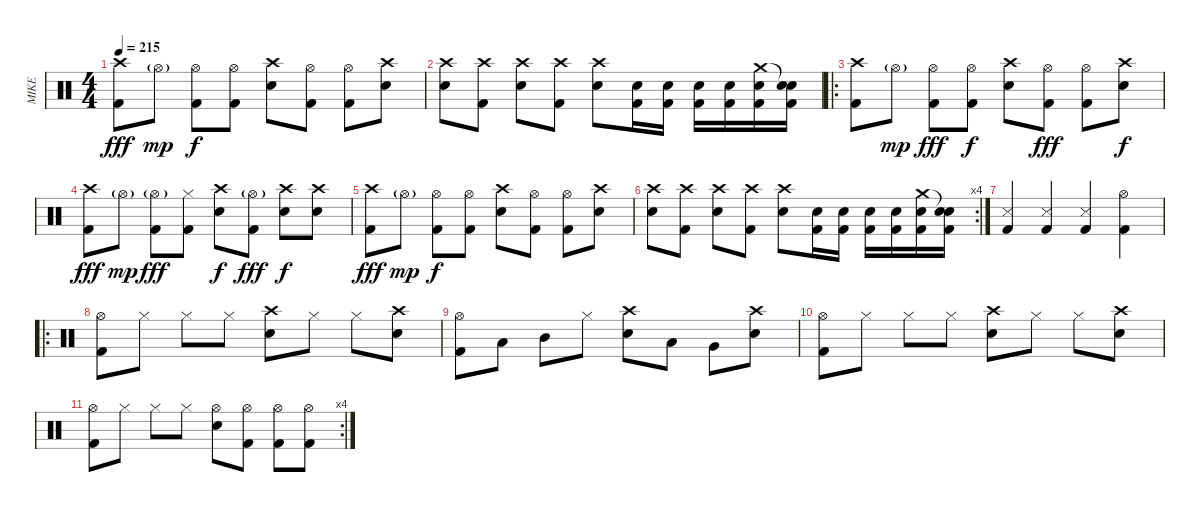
\track ("MIKE" "MIKE") {instrument percussion}
\staff {score}
\articulation defaults
\ts (4 4)
\tempo 215
\clef neutral
\ks c
("Crash high (hit)" "Kick (hit) 2").8{dy fff} "Hi-Hat (open)"{g}.8{dy mp} ("Hi-Hat (open)" "Kick (hit) 2").8{dy f} ("Hi-Hat (open)" "Kick (hit) 2").8 ("Crash high (hit)" "Electric Snare (hit)").8 ("Hi-Hat (open)" "Kick (hit) 2").8 ("Hi-Hat (open)" "Kick (hit) 2").8 ("Crash high (hit)" "Electric Snare (hit)").8 |
("Crash high (hit)" "Electric Snare (hit)").8 ("Crash high (hit)" "Kick (hit) 2").8 ("Crash high (hit)" "Electric Snare (hit)").8 ("Crash high (hit)" "Kick (hit) 2").8 ("Crash high (hit)" "Electric Snare (hit)").8 ("Electric Snare (hit)" "Kick (hit) 2").16 ("Electric Snare (hit)" "Kick (hit) 2").16 ("Electric Snare (hit)" "Kick (hit) 2").16 ("Electric Snare (hit)" "Kick (hit) 2").16 ("Crash medium (hit)" "Electric Snare (hit)" "Kick (hit) 2").16 ("Snare (hit)"{t} "Electric Snare (hit)" "Kick (hit) 2").16 |
\ro
("Crash high (hit)" "Kick (hit) 2").8 "Hi-Hat (open)"{g}.8{dy mp} ("Hi-Hat (open)" "Kick (hit) 2").8{dy fff} ("Hi-Hat (open)" "Kick (hit) 2").8{dy f} ("Crash high (hit)" "Electric Snare (hit)").8 ("Hi-Hat (open)" "Kick (hit) 2").8{dy fff} ("Hi-Hat (open)" "Kick (hit) 2").8 ("Crash high (hit)" "Electric Snare (hit)").8{dy f} |
("Crash high (hit)" "Kick (hit) 2").8{dy fff} "Hi-Hat (open)"{g}.8{dy mp} ("Hi-Hat (open)"{g} "Kick (hit) 2").8{dy fff} ("Hi-Hat (closed)" "Kick (hit) 2").8 ("Crash high (hit)" "Electric Snare (hit)").8{dy f} ("Hi-Hat (open)"{g} "Kick (hit) 2").8{dy fff} ("Crash high (hit)" "Electric Snare (hit)").8{dy f} ("Crash high (hit)" "Electric Snare (hit)").8 |
("Crash high (hit)" "Kick (hit) 2").8{dy fff} "Hi-Hat (open)"{g}.8{dy mp} ("Hi-Hat (open)" "Kick (hit) 2").8{dy f} ("Hi-Hat (open)" "Kick (hit) 2").8 ("Crash high (hit)" "Electric Snare (hit)").8 ("Hi-Hat (open)" "Kick (hit) 2").8 ("Hi-Hat (open)" "Kick (hit) 2").8 ("Crash high (hit)" "Electric Snare (hit)").8 |
\rc 4
("Crash high (hit)" "Electric Snare (hit)").8 ("Crash high (hit)" "Kick (hit) 2").8 ("Crash high (hit)" "Electric Snare (hit)").8 ("Crash high (hit)" "Kick (hit) 2").8 ("Crash high (hit)" "Electric Snare (hit)").8 ("Electric Snare (hit)" "Kick (hit) 2").16 ("Electric Snare (hit)" "Kick (hit) 2").16 ("Electric Snare (hit)" "Kick (hit) 2").16 ("Electric Snare (hit)" "Kick (hit) 2").16 ("Crash medium (hit)" "Electric Snare (hit)" "Kick (hit) 2").16 ("Snare (hit)"{t} "Electric Snare (hit)" "Kick (hit) 2").16 |
("Kick (hit) 2" "Snare (side stick) 3").4 ("Kick (hit) 2" "Snare (side stick) 3").4 ("Kick (hit) 2" "Snare (side stick) 3").4 ("Kick (hit) 2" "Hi-Hat (open)").4 |
\ro
("Hi-Hat (open)" "Kick (hit) 2").8 "Hi-Hat (closed)".8 "Hi-Hat (closed)".8 "Hi-Hat (closed)".8 ("Crash high (hit)" "Electric Snare (hit)").8 "Hi-Hat (closed)".8 "Hi-Hat (closed)".8 ("Crash high (hit)" "Electric Snare (hit)").8 |
("Hi-Hat (open)" "Kick (hit) 2").8 "Low Tom (hit)".8 "Mid Tom (hit)".8 "Hi-Hat (closed)".8 ("Crash high (hit)" "Electric Snare (hit)").8 "Low Tom (hit)".8 "Very Low Tom (hit)".8 ("Crash high (hit)" "Electric Snare (hit)").8 |
("Hi-Hat (open)" "Kick (hit) 2").8 "Hi-Hat (closed)".8 "Hi-Hat (closed)".8 "Hi-Hat (closed)".8 ("Crash high (hit)" "Electric Snare (hit)").8 "Hi-Hat (closed)".8 "Hi-Hat (closed)".8 ("Crash high (hit)" "Electric Snare (hit)").8 |
\rc 4
("Hi-Hat (open)" "Kick (hit) 2").8 "Hi-Hat (closed)".8 "Hi-Hat (closed)".8 "Hi-Hat (closed)".8 ("Hi-Hat (open)" "Snare (hit) 2").8 ("Hi-Hat (open)" "Kick (hit) 2").8 ("Hi-Hat (open)" "Kick (hit) 2").8 ("Hi-Hat (open)" "Kick (hit) 2").8
